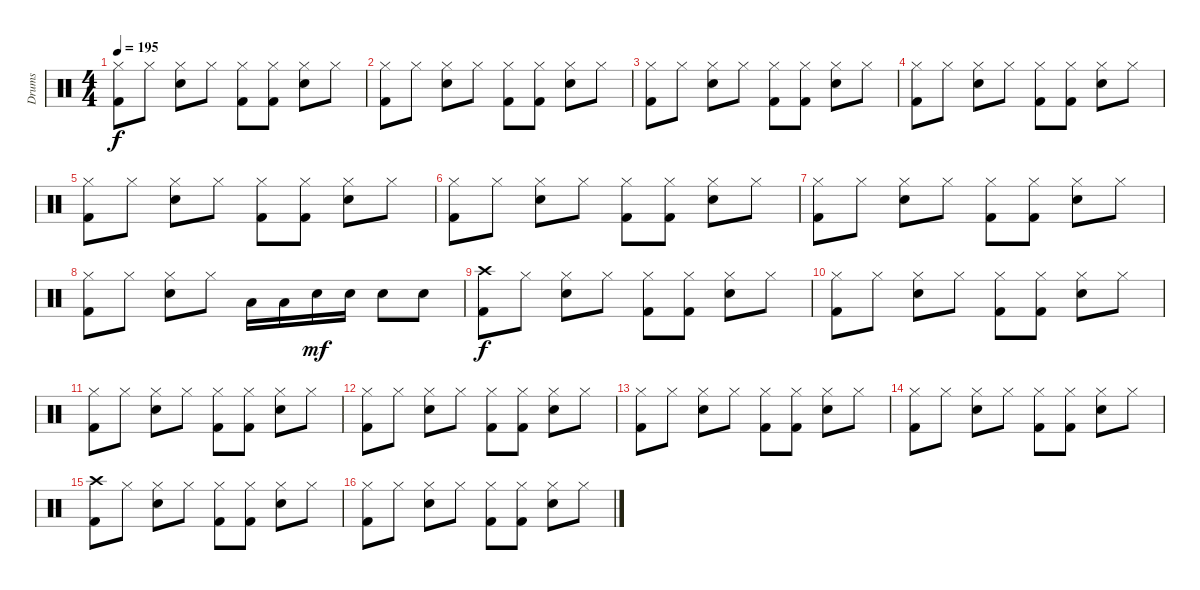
\track ("Drums" "Drums") {instrument percussion}
\staff {score}
\articulation defaults
\ts (4 4)
\tempo 195
\clef neutral
\ks c
("Hi-Hat (closed)" "Kick (hit) 2").8{dy f} "Hi-Hat (closed)".8 ("Hi-Hat (closed)" "Snare (hit) 2").8 "Hi-Hat (closed)".8 ("Hi-Hat (closed)" "Kick (hit) 2").8 ("Hi-Hat (closed)" "Kick (hit) 2").8 ("Hi-Hat (closed)" "Snare (hit) 2").8 "Hi-Hat (closed)".8 |
("Hi-Hat (closed)" "Kick (hit) 2").8 "Hi-Hat (closed)".8 ("Hi-Hat (closed)" "Snare (hit) 2").8 "Hi-Hat (closed)".8 ("Hi-Hat (closed)" "Kick (hit) 2").8 ("Hi-Hat (closed)" "Kick (hit) 2").8 ("Hi-Hat (closed)" "Snare (hit) 2").8 "Hi-Hat (closed)".8 |
("Hi-Hat (closed)" "Kick (hit) 2").8 "Hi-Hat (closed)".8 ("Hi-Hat (closed)" "Snare (hit) 2").8 "Hi-Hat (closed)".8 ("Hi-Hat (closed)" "Kick (hit) 2").8 ("Hi-Hat (closed)" "Kick (hit) 2").8 ("Hi-Hat (closed)" "Snare (hit) 2").8 "Hi-Hat (closed)".8 |
("Hi-Hat (closed)" "Kick (hit) 2").8 "Hi-Hat (closed)".8 ("Hi-Hat (closed)" "Snare (hit) 2").8 "Hi-Hat (closed)".8 ("Hi-Hat (closed)" "Kick (hit) 2").8 ("Hi-Hat (closed)" "Kick (hit) 2").8 ("Hi-Hat (closed)" "Snare (hit) 2").8 "Hi-Hat (closed)".8 |
("Hi-Hat (closed)" "Kick (hit) 2").8 "Hi-Hat (closed)".8 ("Hi-Hat (closed)" "Snare (hit) 2").8 "Hi-Hat (closed)".8 ("Hi-Hat (closed)" "Kick (hit) 2").8 ("Hi-Hat (closed)" "Kick (hit) 2").8 ("Hi-Hat (closed)" "Snare (hit) 2").8 "Hi-Hat (closed)".8 |
("Hi-Hat (closed)" "Kick (hit) 2").8 "Hi-Hat (closed)".8 ("Hi-Hat (closed)" "Snare (hit) 2").8 "Hi-Hat (closed)".8 ("Hi-Hat (closed)" "Kick (hit) 2").8 ("Hi-Hat (closed)" "Kick (hit) 2").8 ("Hi-Hat (closed)" "Snare (hit) 2").8 "Hi-Hat (closed)".8 |
("Hi-Hat (closed)" "Kick (hit) 2").8 "Hi-Hat (closed)".8 ("Hi-Hat (closed)" "Snare (hit) 2").8 "Hi-Hat (closed)".8 ("Hi-Hat (closed)" "Kick (hit) 2").8 ("Hi-Hat (closed)" "Kick (hit) 2").8 ("Hi-Hat (closed)" "Snare (hit) 2").8 "Hi-Hat (closed)".8 |
("Hi-Hat (closed)" "Kick (hit) 2").8 "Hi-Hat (closed)".8 ("Hi-Hat (closed)" "Snare (hit) 2").8 "Hi-Hat (closed)".8 "Low Tom (hit)".16 "Low Tom (hit)".16 "Snare (hit) 2".16{dy mf} "Snare (hit) 2".16 "Snare (hit) 2".8 "Snare (hit) 2".8 |
("Crash high (hit)" "Kick (hit) 2").8{dy f} "Hi-Hat (closed)".8 ("Hi-Hat (closed)" "Snare (hit) 2").8 "Hi-Hat (closed)".8 ("Hi-Hat (closed)" "Kick (hit) 2").8 ("Hi-Hat (closed)" "Kick (hit) 2").8 ("Hi-Hat (closed)" "Snare (hit) 2").8 "Hi-Hat (closed)".8 |
("Hi-Hat (closed)" "Kick (hit) 2").8 "Hi-Hat (closed)".8 ("Hi-Hat (closed)" "Snare (hit) 2").8 "Hi-Hat (closed)".8 ("Hi-Hat (closed)" "Kick (hit) 2").8 ("Hi-Hat (closed)" "Kick (hit) 2").8 ("Hi-Hat (closed)" "Snare (hit) 2").8 "Hi-Hat (closed)".8 |
("Hi-Hat (closed)" "Kick (hit) 2").8 "Hi-Hat (closed)".8 ("Hi-Hat (closed)" "Snare (hit) 2").8 "Hi-Hat (closed)".8 ("Hi-Hat (closed)" "Kick (hit) 2").8 ("Hi-Hat (closed)" "Kick (hit) 2").8 ("Hi-Hat (closed)" "Snare (hit) 2").8 "Hi-Hat (closed)".8 |
("Hi-Hat (closed)" "Kick (hit) 2").8 "Hi-Hat (closed)".8 ("Hi-Hat (closed)" "Snare (hit) 2").8 "Hi-Hat (closed)".8 ("Hi-Hat (closed)" "Kick (hit) 2").8 ("Hi-Hat (closed)" "Kick (hit) 2").8 ("Hi-Hat (closed)" "Snare (hit) 2").8 "Hi-Hat (closed)".8 |
("Hi-Hat (closed)" "Kick (hit) 2").8 "Hi-Hat (closed)".8 ("Hi-Hat (closed)" "Snare (hit) 2").8 "Hi-Hat (closed)".8 ("Hi-Hat (closed)" "Kick (hit) 2").8 ("Hi-Hat (closed)" "Kick (hit) 2").8 ("Hi-Hat (closed)" "Snare (hit) 2").8 "Hi-Hat (closed)".8 |
("Hi-Hat (closed)" "Kick (hit) 2").8 "Hi-Hat (closed)".8 ("Hi-Hat (closed)" "Snare (hit) 2").8 "Hi-Hat (closed)".8 ("Hi-Hat (closed)" "Kick (hit) 2").8 ("Hi-Hat (closed)" "Kick (hit) 2").8 ("Hi-Hat (closed)" "Snare (hit) 2").8 "Hi-Hat (closed)".8 |
("Crash high (hit)" "Kick (hit) 2").8 "Hi-Hat (closed)".8 ("Hi-Hat (closed)" "Snare (hit) 2").8 "Hi-Hat (closed)".8 ("Hi-Hat (closed)" "Kick (hit) 2").8 ("Hi-Hat (closed)" "Kick (hit) 2").8 ("Hi-Hat (closed)" "Snare (hit) 2").8 "Hi-Hat (closed)".8 |
("Hi-Hat (closed)" "Kick (hit) 2").8 "Hi-Hat (closed)".8 ("Hi-Hat (closed)" "Snare (hit) 2").8 "Hi-Hat (closed)".8 ("Hi-Hat (closed)" "Kick (hit) 2").8 ("Hi-Hat (closed)" "Kick (hit) 2").8 ("Hi-Hat (closed)" "Snare (hit) 2").8 "Hi-Hat (closed)".8
